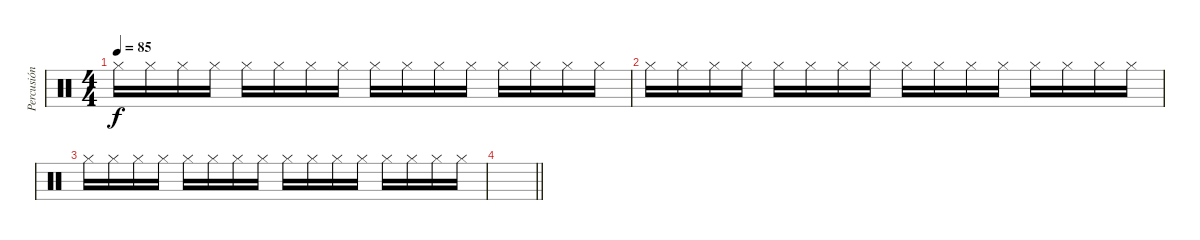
\track ("Percusión" "Percusión") {instrument percussion}
\staff {score}
\articulation defaults
\ts (4 4)
\tempo 85
\clef neutral
\ks c "Hi-Hat (closed)".16{dy f} "Hi-Hat (closed)".16 "Hi-Hat (closed)".16 "Hi-Hat (closed)".16 "Hi-Hat (closed)".16 "Hi-Hat (closed)".16 "Hi-Hat (closed)".16 "Hi-Hat (closed)".16 "Hi-Hat (closed)".16 "Hi-Hat (closed)".16 "Hi-Hat (closed)".16 "Hi-Hat (closed)".16 "Hi-Hat (closed)".16 "Hi-Hat (closed)".16 "Hi-Hat (closed)".16 "Hi-Hat (closed)".16
|
"Hi-Hat (closed)".16 "Hi-Hat (closed)".16 "Hi-Hat (closed)".16 "Hi-Hat (closed)".16 "Hi-Hat (closed)".16 "Hi-Hat (closed)".16 "Hi-Hat (closed)".16 "Hi-Hat (closed)".16 "Hi-Hat (closed)".16 "Hi-Hat (closed)".16 "Hi-Hat (closed)".16 "Hi-Hat (closed)".16 "Hi-Hat (closed)".16 "Hi-Hat (closed)".16 "Hi-Hat (closed)".16 "Hi-Hat (closed)".16 |
"Hi-Hat (closed)".16 "Hi-Hat (closed)".16 "Hi-Hat (closed)".16 "Hi-Hat (closed)".16 "Hi-Hat (closed)".16 "Hi-Hat (closed)".16 "Hi-Hat (closed)".16 "Hi-Hat (closed)".16 "Hi-Hat (closed)".16 "Hi-Hat (closed)".16 "Hi-Hat (closed)".16 "Hi-Hat (closed)".16 "Hi-Hat (closed)".16 "Hi-Hat (closed)".16 "Hi-Hat (closed)".16 "Hi-Hat (closed)".16 |
\barLineRight lightlight
